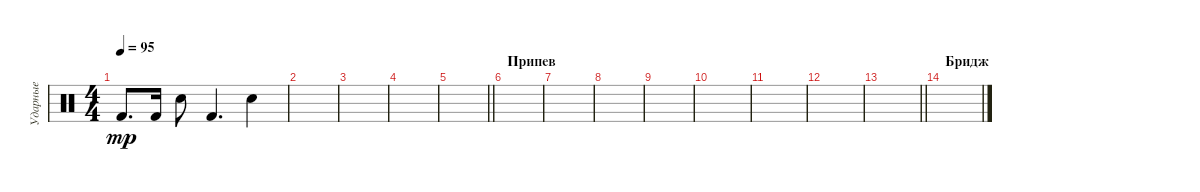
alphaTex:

\track ("Ударные" "Ударные") {instrument percussion}
\staff {score}
\articulation defaults
\ts (4 4)
\tempo 95
\clef neutral
\ks c "Kick (hit) 2".8{d dy mp} "Kick (hit) 2".16 "Snare (hit) 2".8 "Kick (hit) 2".4{d} "Snare (hit) 2".4
|
|
|
|
\barLineRight lightlight
|
\section ("" "Припев")
|
|
|
|
|
|
|
\barLineRight lightlight
|
\section ("" "Бридж")
